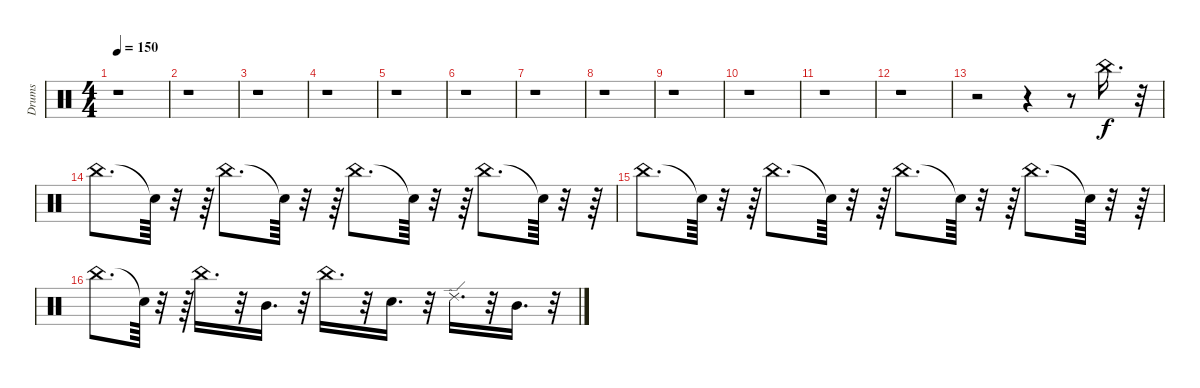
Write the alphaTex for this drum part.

\track ("Drums" "Drums") {instrument percussion}
\staff {score}
\articulation defaults
\ts (4 4)
\tempo 150
\clef neutral
\ks c
r.1{dy f} |
r.1 |
r.1 |
r.1 |
r.1 |
r.1 |
r.1 |
r.1 |
r.1 |
r.1 |
r.1 |
r.1 |
r.2 r.4 r.8 "China (hit)".16{d} r.32 |
"China (hit)".8{d} "Snare (hit)"{t}.64 r.32 r.64 "China (hit)".8{d} "Snare (hit)"{t}.64 r.32 r.64 "China (hit)".8{d} "Snare (hit)"{t}.64 r.32 r.64 "China (hit)".8{d} "Snare (hit)"{t}.64 r.32 r.64 |
"China (hit)".8{d} "Snare (hit)"{t}.64 r.32 r.64 "China (hit)".8{d} "Snare (hit)"{t}.64 r.32 r.64 "China (hit)".8{d} "Snare (hit)"{t}.64 r.32 r.64 "China (hit)".8{d} "Snare (hit)"{t}.64 r.32 r.64 |
"China (hit)".8{d} "Snare (hit)"{t}.64 r.32 r.64 "China (hit)".16{d} r.32 "Mid Tom (hit)".16{d} r.32 "China (hit)".16{d} r.32 "Electric Snare (hit)".16{d} r.32 "Ride (edge) 2".16{d} r.32 "Mid Tom (hit)".16{d} r.32
